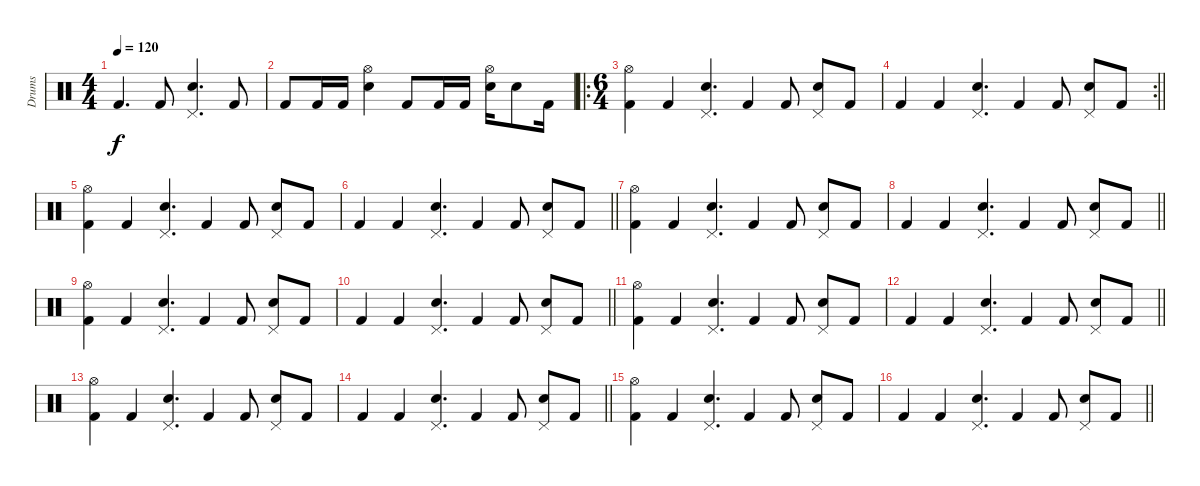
\track ("Drums" "Drums") {instrument percussion}
\staff {score}
\articulation defaults
\ts (4 4)
\tempo 120
\clef neutral
\ks c "Kick (hit) 2".4{d dy f} "Kick (hit) 2".8
("Pedal Hi-Hat (hit)" "Snare (hit) 2").4{d} "Kick (hit) 2".8 |
"Kick (hit) 2".8 "Kick (hit) 2".16 "Kick (hit) 2".16 ("Hi-Hat (open)" "Snare (hit) 2").4 "Kick (hit) 2".8 "Kick (hit) 2".16 "Kick (hit) 2".16 ("Hi-Hat (open)" "Snare (hit) 2").16 "Snare (hit) 2".8 "Kick (hit) 2".16 |
\ro
\ts (6 4)
("Hi-Hat (open)" "Kick (hit) 2").4 "Kick (hit) 2".4 ("Pedal Hi-Hat (hit)" "Snare (hit) 2").4{d} "Kick (hit) 2".4 "Kick (hit) 2".8 ("Pedal Hi-Hat (hit)" "Snare (hit) 2").8 "Kick (hit) 2".8 |
\rc 2
\barLineRight lightlight "Kick (hit) 2".4 "Kick (hit) 2".4
("Pedal Hi-Hat (hit)" "Snare (hit) 2").4{d} "Kick (hit) 2".4 "Kick (hit) 2".8 ("Pedal Hi-Hat (hit)" "Snare (hit) 2").8 "Kick (hit) 2".8 |
("Hi-Hat (open)" "Kick (hit) 2").4 "Kick (hit) 2".4 ("Pedal Hi-Hat (hit)" "Snare (hit) 2").4{d} "Kick (hit) 2".4 "Kick (hit) 2".8 ("Pedal Hi-Hat (hit)" "Snare (hit) 2").8 "Kick (hit) 2".8 |
\barLineRight lightlight "Kick (hit) 2".4 "Kick (hit) 2".4
("Pedal Hi-Hat (hit)" "Snare (hit) 2").4{d} "Kick (hit) 2".4 "Kick (hit) 2".8 ("Pedal Hi-Hat (hit)" "Snare (hit) 2").8 "Kick (hit) 2".8 |
("Hi-Hat (open)" "Kick (hit) 2").4 "Kick (hit) 2".4 ("Pedal Hi-Hat (hit)" "Snare (hit) 2").4{d} "Kick (hit) 2".4 "Kick (hit) 2".8 ("Pedal Hi-Hat (hit)" "Snare (hit) 2").8 "Kick (hit) 2".8 |
\barLineRight lightlight "Kick (hit) 2".4 "Kick (hit) 2".4
("Pedal Hi-Hat (hit)" "Snare (hit) 2").4{d} "Kick (hit) 2".4 "Kick (hit) 2".8 ("Pedal Hi-Hat (hit)" "Snare (hit) 2").8 "Kick (hit) 2".8 |
("Hi-Hat (open)" "Kick (hit) 2").4 "Kick (hit) 2".4 ("Pedal Hi-Hat (hit)" "Snare (hit) 2").4{d} "Kick (hit) 2".4 "Kick (hit) 2".8 ("Pedal Hi-Hat (hit)" "Snare (hit) 2").8 "Kick (hit) 2".8 |
\barLineRight lightlight "Kick (hit) 2".4 "Kick (hit) 2".4
("Pedal Hi-Hat (hit)" "Snare (hit) 2").4{d} "Kick (hit) 2".4 "Kick (hit) 2".8 ("Pedal Hi-Hat (hit)" "Snare (hit) 2").8 "Kick (hit) 2".8 |
("Hi-Hat (open)" "Kick (hit) 2").4 "Kick (hit) 2".4 ("Pedal Hi-Hat (hit)" "Snare (hit) 2").4{d} "Kick (hit) 2".4 "Kick (hit) 2".8 ("Pedal Hi-Hat (hit)" "Snare (hit) 2").8 "Kick (hit) 2".8 |
\barLineRight lightlight "Kick (hit) 2".4 "Kick (hit) 2".4
("Pedal Hi-Hat (hit)" "Snare (hit) 2").4{d} "Kick (hit) 2".4 "Kick (hit) 2".8 ("Pedal Hi-Hat (hit)" "Snare (hit) 2").8 "Kick (hit) 2".8 |
("Hi-Hat (open)" "Kick (hit) 2").4 "Kick (hit) 2".4 ("Pedal Hi-Hat (hit)" "Snare (hit) 2").4{d} "Kick (hit) 2".4 "Kick (hit) 2".8 ("Pedal Hi-Hat (hit)" "Snare (hit) 2").8 "Kick (hit) 2".8 |
\barLineRight lightlight "Kick (hit) 2".4 "Kick (hit) 2".4
("Pedal Hi-Hat (hit)" "Snare (hit) 2").4{d} "Kick (hit) 2".4 "Kick (hit) 2".8 ("Pedal Hi-Hat (hit)" "Snare (hit) 2").8 "Kick (hit) 2".8 |
("Hi-Hat (open)" "Kick (hit) 2").4 "Kick (hit) 2".4 ("Pedal Hi-Hat (hit)" "Snare (hit) 2").4{d} "Kick (hit) 2".4 "Kick (hit) 2".8 ("Pedal Hi-Hat (hit)" "Snare (hit) 2").8 "Kick (hit) 2".8 |
\barLineRight lightlight "Kick (hit) 2".4 "Kick (hit) 2".4
("Pedal Hi-Hat (hit)" "Snare (hit) 2").4{d} "Kick (hit) 2".4 "Kick (hit) 2".8 ("Pedal Hi-Hat (hit)" "Snare (hit) 2").8 "Kick (hit) 2".8
